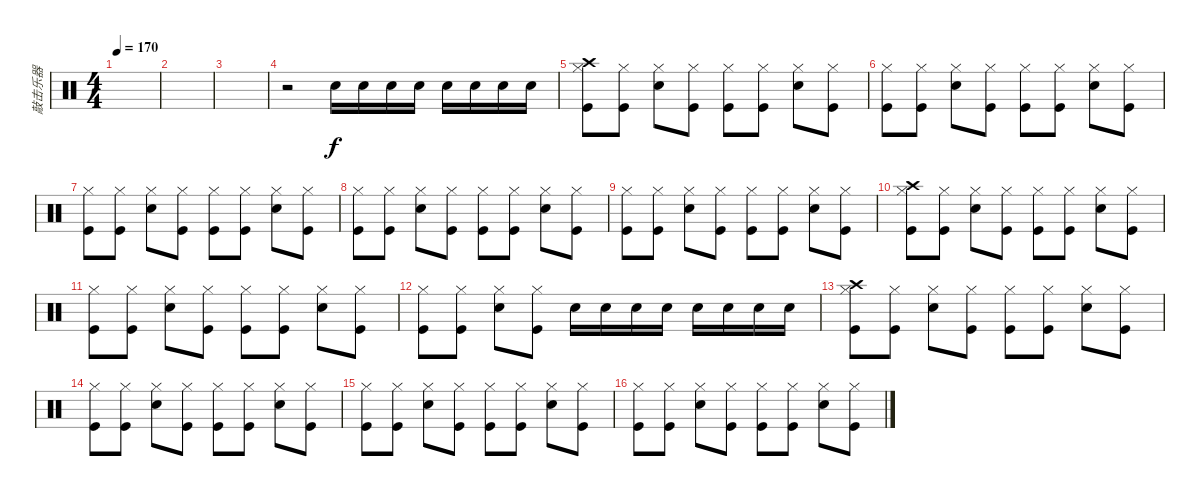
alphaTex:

\track ("敲击乐器" "敲击乐器") {instrument percussion}
\staff {score}
\articulation defaults
\ts (4 4)
\tempo 170
\clef neutral
\ks c
|
|
|
r.2 "Snare (hit) 2".16 "Snare (hit) 2".16 "Snare (hit) 2".16 "Snare (hit) 2".16 "Snare (hit) 2".16 "Snare (hit) 2".16 "Snare (hit) 2".16 "Snare (hit) 2".16 |
("Crash high (hit)" "Hi-Hat (closed)" "Kick (hit)").8 ("Hi-Hat (closed)" "Kick (hit)").8 ("Hi-Hat (closed)" "Snare (hit) 2").8 ("Hi-Hat (closed)" "Kick (hit)").8 ("Hi-Hat (closed)" "Kick (hit)").8 ("Hi-Hat (closed)" "Kick (hit)").8 ("Hi-Hat (closed)" "Snare (hit) 2").8 ("Hi-Hat (closed)" "Kick (hit)").8 |
("Hi-Hat (closed)" "Kick (hit)").8 ("Hi-Hat (closed)" "Kick (hit)").8 ("Hi-Hat (closed)" "Snare (hit) 2").8 ("Hi-Hat (closed)" "Kick (hit)").8 ("Hi-Hat (closed)" "Kick (hit)").8 ("Hi-Hat (closed)" "Kick (hit)").8 ("Hi-Hat (closed)" "Snare (hit) 2").8 ("Hi-Hat (closed)" "Kick (hit)").8 |
("Hi-Hat (closed)" "Kick (hit)").8 ("Hi-Hat (closed)" "Kick (hit)").8 ("Hi-Hat (closed)" "Snare (hit) 2").8 ("Hi-Hat (closed)" "Kick (hit)").8 ("Hi-Hat (closed)" "Kick (hit)").8 ("Hi-Hat (closed)" "Kick (hit)").8 ("Hi-Hat (closed)" "Snare (hit) 2").8 ("Hi-Hat (closed)" "Kick (hit)").8 |
("Hi-Hat (closed)" "Kick (hit)").8 ("Hi-Hat (closed)" "Kick (hit)").8 ("Hi-Hat (closed)" "Snare (hit) 2").8 ("Hi-Hat (closed)" "Kick (hit)").8 ("Hi-Hat (closed)" "Kick (hit)").8 ("Hi-Hat (closed)" "Kick (hit)").8 ("Hi-Hat (closed)" "Snare (hit) 2").8 ("Hi-Hat (closed)" "Kick (hit)").8 |
("Hi-Hat (closed)" "Kick (hit)").8 ("Hi-Hat (closed)" "Kick (hit)").8 ("Hi-Hat (closed)" "Snare (hit) 2").8 ("Hi-Hat (closed)" "Kick (hit)").8 ("Hi-Hat (closed)" "Kick (hit)").8 ("Hi-Hat (closed)" "Kick (hit)").8 ("Hi-Hat (closed)" "Snare (hit) 2").8 ("Hi-Hat (closed)" "Kick (hit)").8 |
("Crash high (hit)" "Hi-Hat (closed)" "Kick (hit)").8 ("Hi-Hat (closed)" "Kick (hit)").8 ("Hi-Hat (closed)" "Snare (hit) 2").8 ("Hi-Hat (closed)" "Kick (hit)").8 ("Hi-Hat (closed)" "Kick (hit)").8 ("Hi-Hat (closed)" "Kick (hit)").8 ("Hi-Hat (closed)" "Snare (hit) 2").8 ("Hi-Hat (closed)" "Kick (hit)").8 |
("Hi-Hat (closed)" "Kick (hit)").8 ("Hi-Hat (closed)" "Kick (hit)").8 ("Hi-Hat (closed)" "Snare (hit) 2").8 ("Hi-Hat (closed)" "Kick (hit)").8 ("Hi-Hat (closed)" "Kick (hit)").8 ("Hi-Hat (closed)" "Kick (hit)").8 ("Hi-Hat (closed)" "Snare (hit) 2").8 ("Hi-Hat (closed)" "Kick (hit)").8 |
("Hi-Hat (closed)" "Kick (hit)").8 ("Hi-Hat (closed)" "Kick (hit)").8 ("Hi-Hat (closed)" "Snare (hit) 2").8 ("Hi-Hat (closed)" "Kick (hit)").8 "Snare (hit) 2".16 "Snare (hit) 2".16 "Snare (hit) 2".16 "Snare (hit) 2".16 "Snare (hit) 2".16 "Snare (hit) 2".16 "Snare (hit) 2".16 "Snare (hit) 2".16 |
("Crash high (hit)" "Hi-Hat (closed)" "Kick (hit)").8 ("Hi-Hat (closed)" "Kick (hit)").8 ("Hi-Hat (closed)" "Snare (hit) 2").8 ("Hi-Hat (closed)" "Kick (hit)").8 ("Hi-Hat (closed)" "Kick (hit)").8 ("Hi-Hat (closed)" "Kick (hit)").8 ("Hi-Hat (closed)" "Snare (hit) 2").8 ("Hi-Hat (closed)" "Kick (hit)").8 |
("Hi-Hat (closed)" "Kick (hit)").8 ("Hi-Hat (closed)" "Kick (hit)").8 ("Hi-Hat (closed)" "Snare (hit) 2").8 ("Hi-Hat (closed)" "Kick (hit)").8 ("Hi-Hat (closed)" "Kick (hit)").8 ("Hi-Hat (closed)" "Kick (hit)").8 ("Hi-Hat (closed)" "Snare (hit) 2").8 ("Hi-Hat (closed)" "Kick (hit)").8 |
("Hi-Hat (closed)" "Kick (hit)").8 ("Hi-Hat (closed)" "Kick (hit)").8 ("Hi-Hat (closed)" "Snare (hit) 2").8 ("Hi-Hat (closed)" "Kick (hit)").8 ("Hi-Hat (closed)" "Kick (hit)").8 ("Hi-Hat (closed)" "Kick (hit)").8 ("Hi-Hat (closed)" "Snare (hit) 2").8 ("Hi-Hat (closed)" "Kick (hit)").8 |
("Hi-Hat (closed)" "Kick (hit)").8 ("Hi-Hat (closed)" "Kick (hit)").8 ("Hi-Hat (closed)" "Snare (hit) 2").8 ("Hi-Hat (closed)" "Kick (hit)").8 ("Hi-Hat (closed)" "Kick (hit)").8 ("Hi-Hat (closed)" "Kick (hit)").8 ("Hi-Hat (closed)" "Snare (hit) 2").8 ("Hi-Hat (closed)" "Kick (hit)").8
